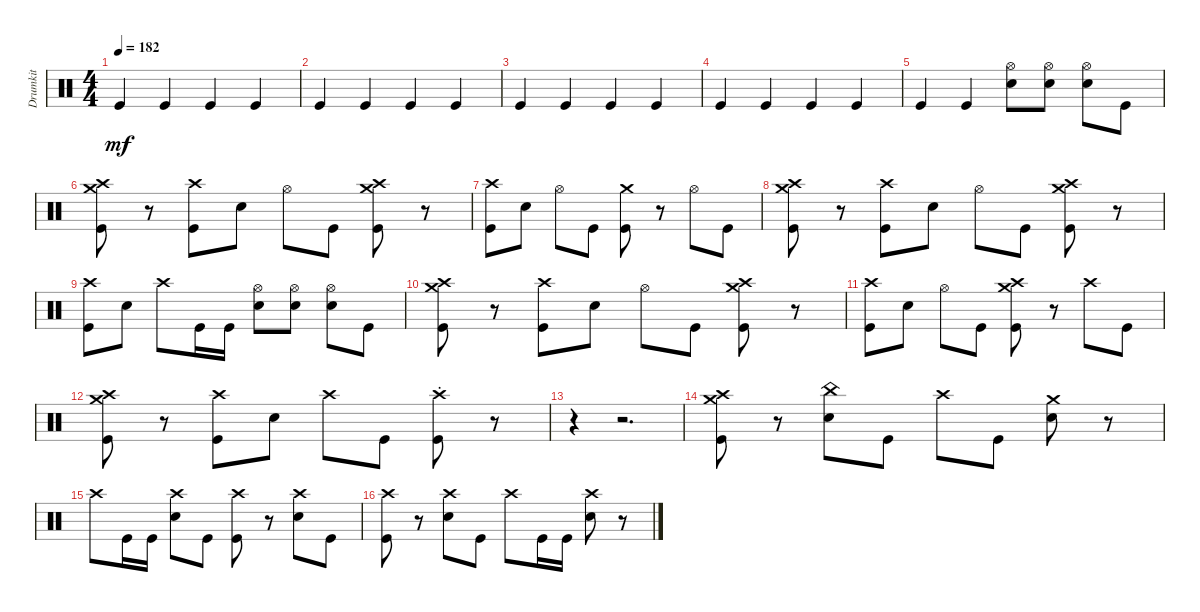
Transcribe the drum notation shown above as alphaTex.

\track ("Drumkit" "Drumkit") {instrument percussion}
\staff {score}
\articulation defaults
\ts (4 4)
\tempo 182
\clef neutral
\ks c "Kick (hit)".4{dy mf} "Kick (hit)".4 "Kick (hit)".4 "Kick (hit)".4
|
"Kick (hit)".4 "Kick (hit)".4 "Kick (hit)".4 "Kick (hit)".4 |
"Kick (hit)".4 "Kick (hit)".4 "Kick (hit)".4 "Kick (hit)".4 |
"Kick (hit)".4 "Kick (hit)".4 "Kick (hit)".4 "Kick (hit)".4 |
"Kick (hit)".4 "Kick (hit)".4 ("Snare (hit) 2" "Hi-Hat (open)").8 ("Snare (hit) 2" "Hi-Hat (open)").8 ("Snare (hit) 2" "Hi-Hat (open)").8 "Kick (hit)".8 |
("Kick (hit)" "Crash high (hit)" "Crash medium (hit)").8 r.8 ("Kick (hit)" "Crash high (hit)").8 "Snare (hit) 2".8 "Hi-Hat (open)".8 "Kick (hit)".8 ("Kick (hit)" "Crash high (hit)" "Crash medium (hit)").8 r.8 |
("Kick (hit)" "Crash high (hit)").8 "Snare (hit) 2".8 "Hi-Hat (open)".8 "Kick (hit)".8 ("Kick (hit)" "Crash medium (hit)").8 r.8 "Hi-Hat (open)".8 "Kick (hit)".8 |
("Kick (hit)" "Crash high (hit)" "Crash medium (hit)").8 r.8 ("Kick (hit)" "Crash high (hit)").8 "Snare (hit) 2".8 "Hi-Hat (open)".8 "Kick (hit)".8 ("Kick (hit)" "Crash high (hit)" "Crash medium (hit)").8 r.8 |
("Kick (hit)" "Crash high (hit)").8 "Snare (hit) 2".8 "Crash high (hit)".8 "Kick (hit)".16 "Kick (hit)".16 ("Snare (hit) 2" "Hi-Hat (open)").8 ("Snare (hit) 2" "Hi-Hat (open)").8 ("Snare (hit) 2" "Hi-Hat (open)").8 "Kick (hit)".8 |
("Kick (hit)" "Crash high (hit)" "Crash medium (hit)").8 r.8 ("Kick (hit)" "Crash high (hit)").8 "Snare (hit) 2".8 "Hi-Hat (open)".8 "Kick (hit)".8 ("Kick (hit)" "Crash high (hit)" "Crash medium (hit)").8 r.8 |
("Kick (hit)" "Crash high (hit)").8 "Snare (hit) 2".8 "Hi-Hat (open)".8 "Kick (hit)".8 ("Kick (hit)" "Crash medium (hit)" "Crash high (hit)").8 r.8 "Crash high (hit)".8 "Kick (hit)".8 |
("Kick (hit)" "Crash high (hit)" "Crash medium (hit)").8 r.8 ("Kick (hit)" "Crash high (hit)").8 "Snare (hit) 2".8 "Crash high (hit)".8 "Kick (hit)".8 ("Kick (hit)" "Crash high (choke)").8 r.8 |
r.4 r.2{d} |
("Crash medium (hit)" "Crash high (hit)" "Kick (hit)").8 r.8 ("Snare (hit) 2" "China (hit)").8 "Kick (hit)".8 "Crash high (hit)".8 "Kick (hit)".8 ("Snare (hit) 2" "Crash medium (hit)").8 r.8 |
"Crash high (hit)".8 "Kick (hit)".16 "Kick (hit)".16 ("Crash high (hit)" "Snare (hit) 2").8 "Kick (hit)".8 ("Crash high (hit)" "Kick (hit)").8 r.8 ("Crash high (hit)" "Snare (hit) 2").8 "Kick (hit)".8 |
("Crash high (hit)" "Kick (hit)").8 r.8 ("Crash high (hit)" "Snare (hit) 2").8 "Kick (hit)".8 "Crash high (hit)".8 "Kick (hit)".16 "Kick (hit)".16 ("Crash high (hit)" "Snare (hit) 2").8 r.8
